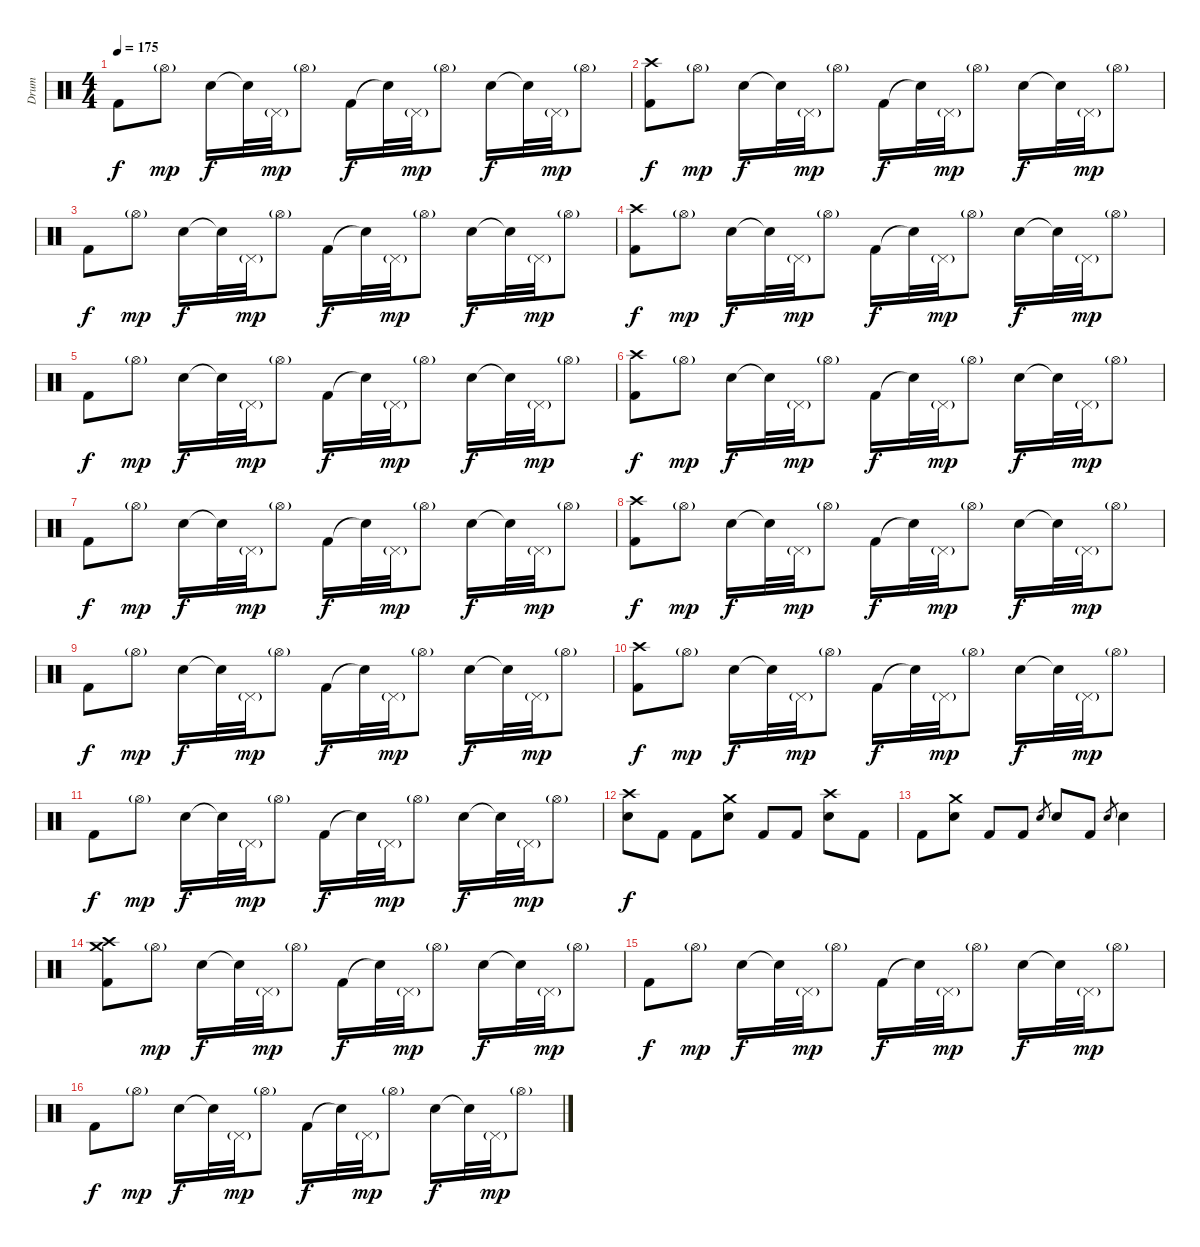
\track ("Drum" "Drum") {instrument percussion}
\staff {score}
\articulation defaults
\ts (4 4)
\tempo 175
\clef neutral
\ks c "Kick (hit) 2".8{dy f} "Hi-Hat (open)"{g}.8{dy mp} "Electric Snare (hit)".16{dy f} "Snare (hit)"{t}.32 "Pedal Hi-Hat (hit)"{g}.32{dy mp} "Hi-Hat (open)"{g}.8 "Kick (hit) 2".16{dy f} "Snare (hit)"{t}.32 "Pedal Hi-Hat (hit)"{g}.32{dy mp} "Hi-Hat (open)"{g}.8 "Electric Snare (hit)".16{dy f} "Snare (hit)"{t}.32 "Pedal Hi-Hat (hit)"{g}.32{dy mp} "Hi-Hat (open)"{g}.8
|
("Kick (hit) 2" "Crash high (hit)").8{dy f} "Hi-Hat (open)"{g}.8{dy mp} "Electric Snare (hit)".16{dy f} "Snare (hit)"{t}.32 "Pedal Hi-Hat (hit)"{g}.32{dy mp} "Hi-Hat (open)"{g}.8 "Kick (hit) 2".16{dy f} "Snare (hit)"{t}.32 "Pedal Hi-Hat (hit)"{g}.32{dy mp} "Hi-Hat (open)"{g}.8 "Electric Snare (hit)".16{dy f} "Snare (hit)"{t}.32 "Pedal Hi-Hat (hit)"{g}.32{dy mp} "Hi-Hat (open)"{g}.8 |
"Kick (hit) 2".8{dy f} "Hi-Hat (open)"{g}.8{dy mp} "Electric Snare (hit)".16{dy f} "Snare (hit)"{t}.32 "Pedal Hi-Hat (hit)"{g}.32{dy mp} "Hi-Hat (open)"{g}.8 "Kick (hit) 2".16{dy f} "Snare (hit)"{t}.32 "Pedal Hi-Hat (hit)"{g}.32{dy mp} "Hi-Hat (open)"{g}.8 "Electric Snare (hit)".16{dy f} "Snare (hit)"{t}.32 "Pedal Hi-Hat (hit)"{g}.32{dy mp} "Hi-Hat (open)"{g}.8 |
("Kick (hit) 2" "Crash high (hit)").8{dy f} "Hi-Hat (open)"{g}.8{dy mp} "Electric Snare (hit)".16{dy f} "Snare (hit)"{t}.32 "Pedal Hi-Hat (hit)"{g}.32{dy mp} "Hi-Hat (open)"{g}.8 "Kick (hit) 2".16{dy f} "Snare (hit)"{t}.32 "Pedal Hi-Hat (hit)"{g}.32{dy mp} "Hi-Hat (open)"{g}.8 "Electric Snare (hit)".16{dy f} "Snare (hit)"{t}.32 "Pedal Hi-Hat (hit)"{g}.32{dy mp} "Hi-Hat (open)"{g}.8 |
"Kick (hit) 2".8{dy f} "Hi-Hat (open)"{g}.8{dy mp} "Electric Snare (hit)".16{dy f} "Snare (hit)"{t}.32 "Pedal Hi-Hat (hit)"{g}.32{dy mp} "Hi-Hat (open)"{g}.8 "Kick (hit) 2".16{dy f} "Snare (hit)"{t}.32 "Pedal Hi-Hat (hit)"{g}.32{dy mp} "Hi-Hat (open)"{g}.8 "Electric Snare (hit)".16{dy f} "Snare (hit)"{t}.32 "Pedal Hi-Hat (hit)"{g}.32{dy mp} "Hi-Hat (open)"{g}.8 |
("Kick (hit) 2" "Crash high (hit)").8{dy f} "Hi-Hat (open)"{g}.8{dy mp} "Electric Snare (hit)".16{dy f} "Snare (hit)"{t}.32 "Pedal Hi-Hat (hit)"{g}.32{dy mp} "Hi-Hat (open)"{g}.8 "Kick (hit) 2".16{dy f} "Snare (hit)"{t}.32 "Pedal Hi-Hat (hit)"{g}.32{dy mp} "Hi-Hat (open)"{g}.8 "Electric Snare (hit)".16{dy f} "Snare (hit)"{t}.32 "Pedal Hi-Hat (hit)"{g}.32{dy mp} "Hi-Hat (open)"{g}.8 |
"Kick (hit) 2".8{dy f} "Hi-Hat (open)"{g}.8{dy mp} "Electric Snare (hit)".16{dy f} "Snare (hit)"{t}.32 "Pedal Hi-Hat (hit)"{g}.32{dy mp} "Hi-Hat (open)"{g}.8 "Kick (hit) 2".16{dy f} "Snare (hit)"{t}.32 "Pedal Hi-Hat (hit)"{g}.32{dy mp} "Hi-Hat (open)"{g}.8 "Electric Snare (hit)".16{dy f} "Snare (hit)"{t}.32 "Pedal Hi-Hat (hit)"{g}.32{dy mp} "Hi-Hat (open)"{g}.8 |
("Kick (hit) 2" "Crash high (hit)").8{dy f} "Hi-Hat (open)"{g}.8{dy mp} "Electric Snare (hit)".16{dy f} "Snare (hit)"{t}.32 "Pedal Hi-Hat (hit)"{g}.32{dy mp} "Hi-Hat (open)"{g}.8 "Kick (hit) 2".16{dy f} "Snare (hit)"{t}.32 "Pedal Hi-Hat (hit)"{g}.32{dy mp} "Hi-Hat (open)"{g}.8 "Electric Snare (hit)".16{dy f} "Snare (hit)"{t}.32 "Pedal Hi-Hat (hit)"{g}.32{dy mp} "Hi-Hat (open)"{g}.8 |
"Kick (hit) 2".8{dy f} "Hi-Hat (open)"{g}.8{dy mp} "Electric Snare (hit)".16{dy f} "Snare (hit)"{t}.32 "Pedal Hi-Hat (hit)"{g}.32{dy mp} "Hi-Hat (open)"{g}.8 "Kick (hit) 2".16{dy f} "Snare (hit)"{t}.32 "Pedal Hi-Hat (hit)"{g}.32{dy mp} "Hi-Hat (open)"{g}.8 "Electric Snare (hit)".16{dy f} "Snare (hit)"{t}.32 "Pedal Hi-Hat (hit)"{g}.32{dy mp} "Hi-Hat (open)"{g}.8 |
("Kick (hit) 2" "Crash high (hit)").8{dy f} "Hi-Hat (open)"{g}.8{dy mp} "Electric Snare (hit)".16{dy f} "Snare (hit)"{t}.32 "Pedal Hi-Hat (hit)"{g}.32{dy mp} "Hi-Hat (open)"{g}.8 "Kick (hit) 2".16{dy f} "Snare (hit)"{t}.32 "Pedal Hi-Hat (hit)"{g}.32{dy mp} "Hi-Hat (open)"{g}.8 "Electric Snare (hit)".16{dy f} "Snare (hit)"{t}.32 "Pedal Hi-Hat (hit)"{g}.32{dy mp} "Hi-Hat (open)"{g}.8 |
"Kick (hit) 2".8{dy f} "Hi-Hat (open)"{g}.8{dy mp} "Electric Snare (hit)".16{dy f} "Snare (hit)"{t}.32 "Pedal Hi-Hat (hit)"{g}.32{dy mp} "Hi-Hat (open)"{g}.8 "Kick (hit) 2".16{dy f} "Snare (hit)"{t}.32 "Pedal Hi-Hat (hit)"{g}.32{dy mp} "Hi-Hat (open)"{g}.8 "Electric Snare (hit)".16{dy f} "Snare (hit)"{t}.32 "Pedal Hi-Hat (hit)"{g}.32{dy mp} "Hi-Hat (open)"{g}.8 |
("Electric Snare (hit)" "Crash high (hit)").8{dy f} "Kick (hit) 2".8 "Kick (hit) 2".8 ("Electric Snare (hit)" "Crash medium (hit)").8 "Kick (hit) 2".8 "Kick (hit) 2".8 ("Electric Snare (hit)" "Crash high (hit)").8 "Kick (hit) 2".8 |
"Kick (hit) 2".8 ("Electric Snare (hit)" "Crash medium (hit)").8 "Kick (hit) 2".8 "Kick (hit) 2".8 "Electric Snare (hit)".8{gr} "Electric Snare (hit)".8 "Kick (hit) 2".8 "Electric Snare (hit)".8{gr} "Electric Snare (hit)".4 |
\section ("" "")
("Kick (hit) 2" "Crash high (hit)" "Crash medium (hit)").8 "Hi-Hat (open)"{g}.8{dy mp} "Electric Snare (hit)".16{dy f} "Snare (hit)"{t}.32 "Pedal Hi-Hat (hit)"{g}.32{dy mp} "Hi-Hat (open)"{g}.8 "Kick (hit) 2".16{dy f} "Snare (hit)"{t}.32 "Pedal Hi-Hat (hit)"{g}.32{dy mp} "Hi-Hat (open)"{g}.8 "Electric Snare (hit)".16{dy f} "Snare (hit)"{t}.32 "Pedal Hi-Hat (hit)"{g}.32{dy mp} "Hi-Hat (open)"{g}.8 |
"Kick (hit) 2".8{dy f} "Hi-Hat (open)"{g}.8{dy mp} "Electric Snare (hit)".16{dy f} "Snare (hit)"{t}.32 "Pedal Hi-Hat (hit)"{g}.32{dy mp} "Hi-Hat (open)"{g}.8 "Kick (hit) 2".16{dy f} "Snare (hit)"{t}.32 "Pedal Hi-Hat (hit)"{g}.32{dy mp} "Hi-Hat (open)"{g}.8 "Electric Snare (hit)".16{dy f} "Snare (hit)"{t}.32 "Pedal Hi-Hat (hit)"{g}.32{dy mp} "Hi-Hat (open)"{g}.8 |
"Kick (hit) 2".8{dy f} "Hi-Hat (open)"{g}.8{dy mp} "Electric Snare (hit)".16{dy f} "Snare (hit)"{t}.32 "Pedal Hi-Hat (hit)"{g}.32{dy mp} "Hi-Hat (open)"{g}.8 "Kick (hit) 2".16{dy f} "Snare (hit)"{t}.32 "Pedal Hi-Hat (hit)"{g}.32{dy mp} "Hi-Hat (open)"{g}.8 "Electric Snare (hit)".16{dy f} "Snare (hit)"{t}.32 "Pedal Hi-Hat (hit)"{g}.32{dy mp} "Hi-Hat (open)"{g}.8
